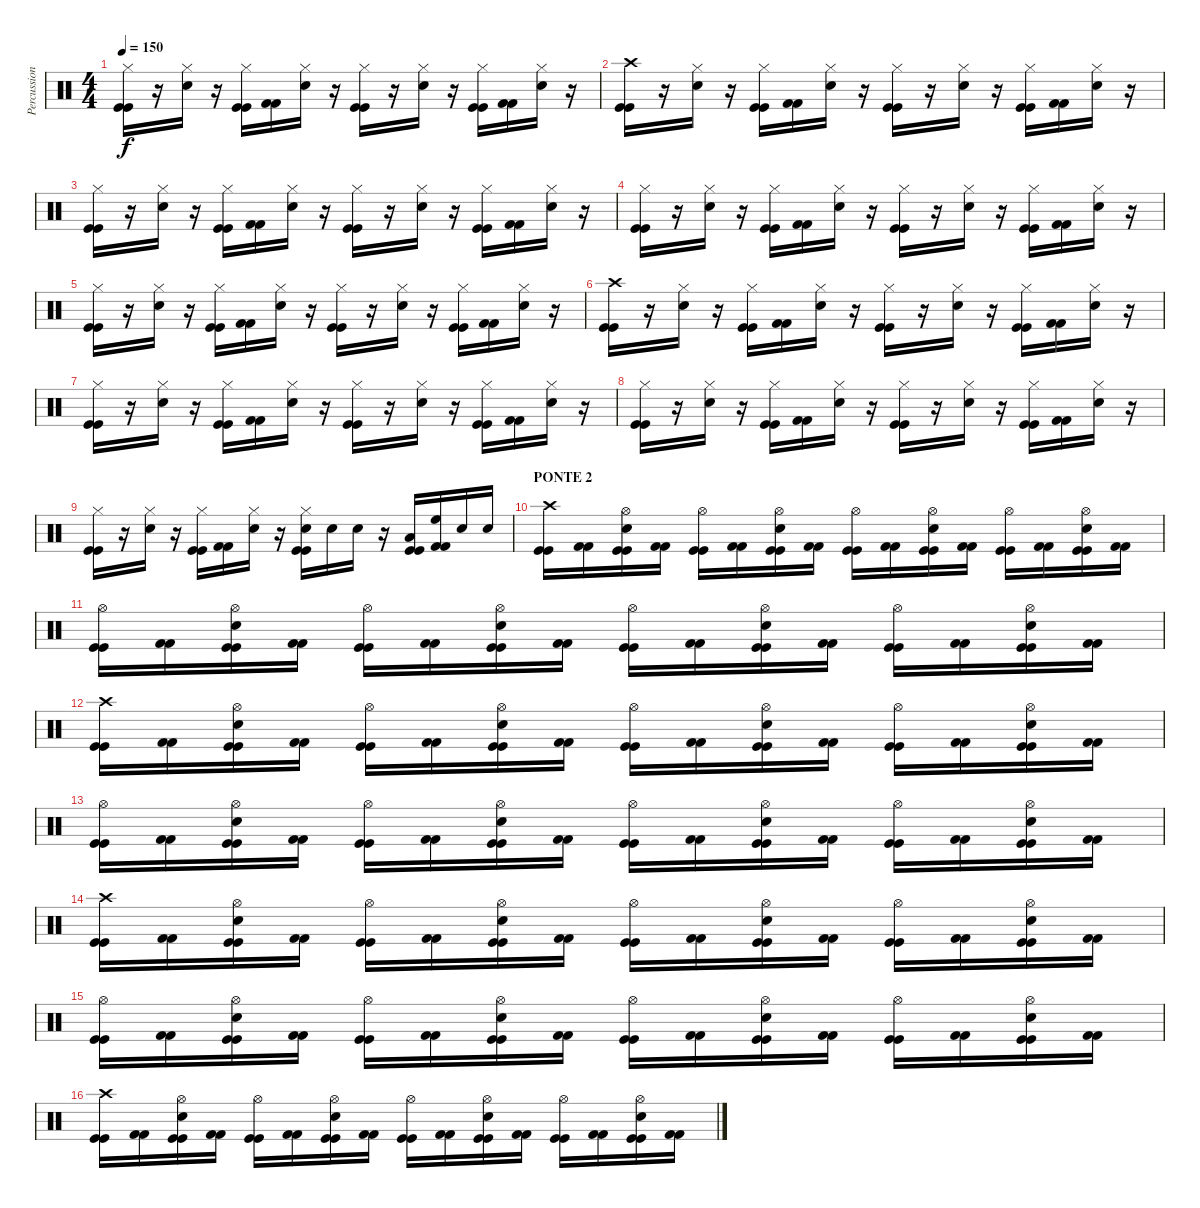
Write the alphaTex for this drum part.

\track ("Percussion" "Percussion") {instrument percussion}
\staff {score}
\articulation defaults
\ts (4 4)
\tempo 150
\clef neutral
\ks c
("Hi-Hat (closed)" "Kick (hit)" "Kick (hit)").16{dy f} r.16 ("Hi-Hat (closed)" "Electric Snare (hit)").16 r.16 ("Hi-Hat (closed)" "Kick (hit)" "Kick (hit)").16 ("Kick (hit) 2" "Kick (hit) 2").16 ("Hi-Hat (closed)" "Electric Snare (hit)").16 r.16 ("Hi-Hat (closed)" "Kick (hit)" "Kick (hit)").16 r.16 ("Hi-Hat (closed)" "Electric Snare (hit)").16 r.16 ("Hi-Hat (closed)" "Kick (hit)" "Kick (hit)").16 ("Kick (hit) 2" "Kick (hit) 2").16 ("Hi-Hat (closed)" "Electric Snare (hit)").16 r.16 |
("Crash high (hit)" "Kick (hit)" "Kick (hit)").16 r.16 ("Hi-Hat (closed)" "Electric Snare (hit)").16 r.16 ("Hi-Hat (closed)" "Kick (hit)" "Kick (hit)").16 ("Kick (hit) 2" "Kick (hit) 2").16 ("Hi-Hat (closed)" "Electric Snare (hit)").16 r.16 ("Hi-Hat (closed)" "Kick (hit)" "Kick (hit)").16 r.16 ("Hi-Hat (closed)" "Electric Snare (hit)").16 r.16 ("Hi-Hat (closed)" "Kick (hit)" "Kick (hit)").16 ("Kick (hit) 2" "Kick (hit) 2").16 ("Hi-Hat (closed)" "Electric Snare (hit)").16 r.16 |
("Hi-Hat (closed)" "Kick (hit)" "Kick (hit)").16 r.16 ("Hi-Hat (closed)" "Electric Snare (hit)").16 r.16 ("Hi-Hat (closed)" "Kick (hit)" "Kick (hit)").16 ("Kick (hit) 2" "Kick (hit) 2").16 ("Hi-Hat (closed)" "Electric Snare (hit)").16 r.16 ("Hi-Hat (closed)" "Kick (hit)" "Kick (hit)").16 r.16 ("Hi-Hat (closed)" "Electric Snare (hit)").16 r.16 ("Hi-Hat (closed)" "Kick (hit)" "Kick (hit)").16 ("Kick (hit) 2" "Kick (hit) 2").16 ("Hi-Hat (closed)" "Electric Snare (hit)").16 r.16 |
("Hi-Hat (closed)" "Kick (hit)" "Kick (hit)").16 r.16 ("Hi-Hat (closed)" "Electric Snare (hit)").16 r.16 ("Hi-Hat (closed)" "Kick (hit)" "Kick (hit)").16 ("Kick (hit) 2" "Kick (hit) 2").16 ("Hi-Hat (closed)" "Electric Snare (hit)").16 r.16 ("Hi-Hat (closed)" "Kick (hit)" "Kick (hit)").16 r.16 ("Hi-Hat (closed)" "Electric Snare (hit)").16 r.16 ("Hi-Hat (closed)" "Kick (hit)" "Kick (hit)").16 ("Kick (hit) 2" "Kick (hit) 2").16 ("Hi-Hat (closed)" "Electric Snare (hit)").16 r.16 |
("Hi-Hat (closed)" "Kick (hit)" "Kick (hit)").16 r.16 ("Hi-Hat (closed)" "Electric Snare (hit)").16 r.16 ("Hi-Hat (closed)" "Kick (hit)" "Kick (hit)").16 ("Kick (hit) 2" "Kick (hit) 2").16 ("Hi-Hat (closed)" "Electric Snare (hit)").16 r.16 ("Hi-Hat (closed)" "Kick (hit)" "Kick (hit)").16 r.16 ("Hi-Hat (closed)" "Electric Snare (hit)").16 r.16 ("Hi-Hat (closed)" "Kick (hit)" "Kick (hit)").16 ("Kick (hit) 2" "Kick (hit) 2").16 ("Hi-Hat (closed)" "Electric Snare (hit)").16 r.16 |
("Crash high (hit)" "Kick (hit)" "Kick (hit)").16 r.16 ("Hi-Hat (closed)" "Electric Snare (hit)").16 r.16 ("Hi-Hat (closed)" "Kick (hit)" "Kick (hit)").16 ("Kick (hit) 2" "Kick (hit) 2").16 ("Hi-Hat (closed)" "Electric Snare (hit)").16 r.16 ("Hi-Hat (closed)" "Kick (hit)" "Kick (hit)").16 r.16 ("Hi-Hat (closed)" "Electric Snare (hit)").16 r.16 ("Hi-Hat (closed)" "Kick (hit)" "Kick (hit)").16 ("Kick (hit) 2" "Kick (hit) 2").16 ("Hi-Hat (closed)" "Electric Snare (hit)").16 r.16 |
("Hi-Hat (closed)" "Kick (hit)" "Kick (hit)").16 r.16 ("Hi-Hat (closed)" "Electric Snare (hit)").16 r.16 ("Hi-Hat (closed)" "Kick (hit)" "Kick (hit)").16 ("Kick (hit) 2" "Kick (hit) 2").16 ("Hi-Hat (closed)" "Electric Snare (hit)").16 r.16 ("Hi-Hat (closed)" "Kick (hit)" "Kick (hit)").16 r.16 ("Hi-Hat (closed)" "Electric Snare (hit)").16 r.16 ("Hi-Hat (closed)" "Kick (hit)" "Kick (hit)").16 ("Kick (hit) 2" "Kick (hit) 2").16 ("Hi-Hat (closed)" "Electric Snare (hit)").16 r.16 |
("Hi-Hat (closed)" "Kick (hit)" "Kick (hit)").16 r.16 ("Hi-Hat (closed)" "Electric Snare (hit)").16 r.16 ("Hi-Hat (closed)" "Kick (hit)" "Kick (hit)").16 ("Kick (hit) 2" "Kick (hit) 2").16 ("Hi-Hat (closed)" "Electric Snare (hit)").16 r.16 ("Hi-Hat (closed)" "Kick (hit)" "Kick (hit)").16 r.16 ("Hi-Hat (closed)" "Electric Snare (hit)").16 r.16 ("Hi-Hat (closed)" "Kick (hit)" "Kick (hit)").16 ("Kick (hit) 2" "Kick (hit) 2").16 ("Hi-Hat (closed)" "Electric Snare (hit)").16 r.16 |
("Hi-Hat (closed)" "Kick (hit)" "Kick (hit)").16 r.16 ("Hi-Hat (closed)" "Electric Snare (hit)").16 r.16 ("Hi-Hat (closed)" "Kick (hit)" "Kick (hit)").16 ("Kick (hit) 2" "Kick (hit) 2").16 ("Hi-Hat (closed)" "Electric Snare (hit)").16 r.16 ("Hi-Hat (closed)" "Electric Snare (hit)" "Kick (hit)" "Kick (hit)").16 "Electric Snare (hit)".16 "Electric Snare (hit)".16 r.16 ("Low Tom (hit)" "Kick (hit)" "Kick (hit)").16 ("High Floor Tom (hit)" "Kick (hit) 2" "Kick (hit) 2").16 "Electric Snare (hit)".16 "Electric Snare (hit)".16 |
\section ("" "PONTE 2")
("Crash high (hit)" "Kick (hit)" "Kick (hit)").16 ("Kick (hit) 2" "Kick (hit) 2").16 ("Hi-Hat (open)" "Electric Snare (hit)" "Kick (hit)" "Kick (hit)").16 ("Kick (hit) 2" "Kick (hit) 2").16 ("Hi-Hat (open)" "Kick (hit)" "Kick (hit)").16 ("Kick (hit) 2" "Kick (hit) 2").16 ("Hi-Hat (open)" "Electric Snare (hit)" "Kick (hit)" "Kick (hit)").16 ("Kick (hit) 2" "Kick (hit) 2").16 ("Hi-Hat (open)" "Kick (hit)" "Kick (hit)").16 ("Kick (hit) 2" "Kick (hit) 2").16 ("Hi-Hat (open)" "Electric Snare (hit)" "Kick (hit)" "Kick (hit)").16 ("Kick (hit) 2" "Kick (hit) 2").16 ("Hi-Hat (open)" "Kick (hit)" "Kick (hit)").16 ("Kick (hit) 2" "Kick (hit) 2").16 ("Hi-Hat (open)" "Electric Snare (hit)" "Kick (hit)" "Kick (hit)").16 ("Kick (hit) 2" "Kick (hit) 2").16 |
("Hi-Hat (open)" "Kick (hit)" "Kick (hit)").16 ("Kick (hit) 2" "Kick (hit) 2").16 ("Hi-Hat (open)" "Electric Snare (hit)" "Kick (hit)" "Kick (hit)").16 ("Kick (hit) 2" "Kick (hit) 2").16 ("Hi-Hat (open)" "Kick (hit)" "Kick (hit)").16 ("Kick (hit) 2" "Kick (hit) 2").16 ("Hi-Hat (open)" "Electric Snare (hit)" "Kick (hit)" "Kick (hit)").16 ("Kick (hit) 2" "Kick (hit) 2").16 ("Hi-Hat (open)" "Kick (hit)" "Kick (hit)").16 ("Kick (hit) 2" "Kick (hit) 2").16 ("Hi-Hat (open)" "Electric Snare (hit)" "Kick (hit)" "Kick (hit)").16 ("Kick (hit) 2" "Kick (hit) 2").16 ("Hi-Hat (open)" "Kick (hit)" "Kick (hit)").16 ("Kick (hit) 2" "Kick (hit) 2").16 ("Hi-Hat (open)" "Electric Snare (hit)" "Kick (hit)" "Kick (hit)").16 ("Kick (hit) 2" "Kick (hit) 2").16 |
("Crash high (hit)" "Kick (hit)" "Kick (hit)").16 ("Kick (hit) 2" "Kick (hit) 2").16 ("Hi-Hat (open)" "Electric Snare (hit)" "Kick (hit)" "Kick (hit)").16 ("Kick (hit) 2" "Kick (hit) 2").16 ("Hi-Hat (open)" "Kick (hit)" "Kick (hit)").16 ("Kick (hit) 2" "Kick (hit) 2").16 ("Hi-Hat (open)" "Electric Snare (hit)" "Kick (hit)" "Kick (hit)").16 ("Kick (hit) 2" "Kick (hit) 2").16 ("Hi-Hat (open)" "Kick (hit)" "Kick (hit)").16 ("Kick (hit) 2" "Kick (hit) 2").16 ("Hi-Hat (open)" "Electric Snare (hit)" "Kick (hit)" "Kick (hit)").16 ("Kick (hit) 2" "Kick (hit) 2").16 ("Hi-Hat (open)" "Kick (hit)" "Kick (hit)").16 ("Kick (hit) 2" "Kick (hit) 2").16 ("Hi-Hat (open)" "Electric Snare (hit)" "Kick (hit)" "Kick (hit)").16 ("Kick (hit) 2" "Kick (hit) 2").16 |
("Hi-Hat (open)" "Kick (hit)" "Kick (hit)").16 ("Kick (hit) 2" "Kick (hit) 2").16 ("Hi-Hat (open)" "Electric Snare (hit)" "Kick (hit)" "Kick (hit)").16 ("Kick (hit) 2" "Kick (hit) 2").16 ("Hi-Hat (open)" "Kick (hit)" "Kick (hit)").16 ("Kick (hit) 2" "Kick (hit) 2").16 ("Hi-Hat (open)" "Electric Snare (hit)" "Kick (hit)" "Kick (hit)").16 ("Kick (hit) 2" "Kick (hit) 2").16 ("Hi-Hat (open)" "Kick (hit)" "Kick (hit)").16 ("Kick (hit) 2" "Kick (hit) 2").16 ("Hi-Hat (open)" "Electric Snare (hit)" "Kick (hit)" "Kick (hit)").16 ("Kick (hit) 2" "Kick (hit) 2").16 ("Hi-Hat (open)" "Kick (hit)" "Kick (hit)").16 ("Kick (hit) 2" "Kick (hit) 2").16 ("Hi-Hat (open)" "Electric Snare (hit)" "Kick (hit)" "Kick (hit)").16 ("Kick (hit) 2" "Kick (hit) 2").16 |
("Crash high (hit)" "Kick (hit)" "Kick (hit)").16 ("Kick (hit) 2" "Kick (hit) 2").16 ("Hi-Hat (open)" "Electric Snare (hit)" "Kick (hit)" "Kick (hit)").16 ("Kick (hit) 2" "Kick (hit) 2").16 ("Hi-Hat (open)" "Kick (hit)" "Kick (hit)").16 ("Kick (hit) 2" "Kick (hit) 2").16 ("Hi-Hat (open)" "Electric Snare (hit)" "Kick (hit)" "Kick (hit)").16 ("Kick (hit) 2" "Kick (hit) 2").16 ("Hi-Hat (open)" "Kick (hit)" "Kick (hit)").16 ("Kick (hit) 2" "Kick (hit) 2").16 ("Hi-Hat (open)" "Electric Snare (hit)" "Kick (hit)" "Kick (hit)").16 ("Kick (hit) 2" "Kick (hit) 2").16 ("Hi-Hat (open)" "Kick (hit)" "Kick (hit)").16 ("Kick (hit) 2" "Kick (hit) 2").16 ("Hi-Hat (open)" "Electric Snare (hit)" "Kick (hit)" "Kick (hit)").16 ("Kick (hit) 2" "Kick (hit) 2").16 |
("Hi-Hat (open)" "Kick (hit)" "Kick (hit)").16 ("Kick (hit) 2" "Kick (hit) 2").16 ("Hi-Hat (open)" "Electric Snare (hit)" "Kick (hit)" "Kick (hit)").16 ("Kick (hit) 2" "Kick (hit) 2").16 ("Hi-Hat (open)" "Kick (hit)" "Kick (hit)").16 ("Kick (hit) 2" "Kick (hit) 2").16 ("Hi-Hat (open)" "Electric Snare (hit)" "Kick (hit)" "Kick (hit)").16 ("Kick (hit) 2" "Kick (hit) 2").16 ("Hi-Hat (open)" "Kick (hit)" "Kick (hit)").16 ("Kick (hit) 2" "Kick (hit) 2").16 ("Hi-Hat (open)" "Electric Snare (hit)" "Kick (hit)" "Kick (hit)").16 ("Kick (hit) 2" "Kick (hit) 2").16 ("Hi-Hat (open)" "Kick (hit)" "Kick (hit)").16 ("Kick (hit) 2" "Kick (hit) 2").16 ("Hi-Hat (open)" "Electric Snare (hit)" "Kick (hit)" "Kick (hit)").16 ("Kick (hit) 2" "Kick (hit) 2").16 |
("Crash high (hit)" "Kick (hit)" "Kick (hit)").16 ("Kick (hit) 2" "Kick (hit) 2").16 ("Hi-Hat (open)" "Electric Snare (hit)" "Kick (hit)" "Kick (hit)").16 ("Kick (hit) 2" "Kick (hit) 2").16 ("Hi-Hat (open)" "Kick (hit)" "Kick (hit)").16 ("Kick (hit) 2" "Kick (hit) 2").16 ("Hi-Hat (open)" "Electric Snare (hit)" "Kick (hit)" "Kick (hit)").16 ("Kick (hit) 2" "Kick (hit) 2").16 ("Hi-Hat (open)" "Kick (hit)" "Kick (hit)").16 ("Kick (hit) 2" "Kick (hit) 2").16 ("Hi-Hat (open)" "Electric Snare (hit)" "Kick (hit)" "Kick (hit)").16 ("Kick (hit) 2" "Kick (hit) 2").16 ("Hi-Hat (open)" "Kick (hit)" "Kick (hit)").16 ("Kick (hit) 2" "Kick (hit) 2").16 ("Hi-Hat (open)" "Electric Snare (hit)" "Kick (hit)" "Kick (hit)").16 ("Kick (hit) 2" "Kick (hit) 2").16
